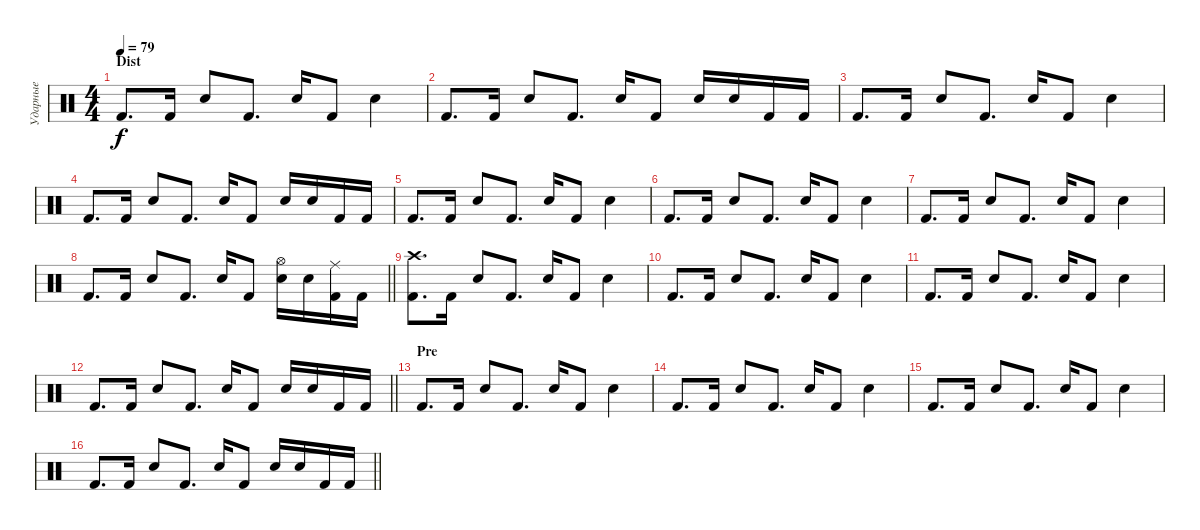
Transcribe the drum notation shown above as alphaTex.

\track ("Ударные" "Ударные") {instrument percussion}
\staff {score}
\articulation defaults
\ts (4 4)
\section ("" "Dist")
\tempo 79
\clef neutral
\ks c "Kick (hit) 2".8{d dy f} "Kick (hit) 2".16 "Snare (hit) 2".8 "Kick (hit) 2".8{d} "Snare (hit) 2".16 "Kick (hit) 2".8 "Snare (hit) 2".4
|
"Kick (hit) 2".8{d} "Kick (hit) 2".16 "Snare (hit) 2".8 "Kick (hit) 2".8{d} "Snare (hit) 2".16 "Kick (hit) 2".8 "Snare (hit) 2".16 "Snare (hit) 2".16 "Kick (hit) 2".16 "Kick (hit) 2".16 |
"Kick (hit) 2".8{d} "Kick (hit) 2".16 "Snare (hit) 2".8 "Kick (hit) 2".8{d} "Snare (hit) 2".16 "Kick (hit) 2".8 "Snare (hit) 2".4 |
"Kick (hit) 2".8{d} "Kick (hit) 2".16 "Snare (hit) 2".8 "Kick (hit) 2".8{d} "Snare (hit) 2".16 "Kick (hit) 2".8 "Snare (hit) 2".16 "Snare (hit) 2".16 "Kick (hit) 2".16 "Kick (hit) 2".16 |
"Kick (hit) 2".8{d} "Kick (hit) 2".16 "Snare (hit) 2".8 "Kick (hit) 2".8{d} "Snare (hit) 2".16 "Kick (hit) 2".8 "Snare (hit) 2".4 |
"Kick (hit) 2".8{d} "Kick (hit) 2".16 "Snare (hit) 2".8 "Kick (hit) 2".8{d} "Snare (hit) 2".16 "Kick (hit) 2".8 "Snare (hit) 2".4 |
"Kick (hit) 2".8{d} "Kick (hit) 2".16 "Snare (hit) 2".8 "Kick (hit) 2".8{d} "Snare (hit) 2".16 "Kick (hit) 2".8 "Snare (hit) 2".4 |
\barLineRight lightlight "Kick (hit) 2".8{d} "Kick (hit) 2".16 "Snare (hit) 2".8 "Kick (hit) 2".8{d} "Snare (hit) 2".16 "Kick (hit) 2".8
("Hi-Hat (open)" "Snare (hit) 2").16 "Snare (hit) 2".16 ("Ride (middle)" "Kick (hit) 2").16 "Kick (hit) 2".16 |
("Crash high (hit)" "Kick (hit) 2").8{d} "Kick (hit) 2".16 "Snare (hit) 2".8 "Kick (hit) 2".8{d} "Snare (hit) 2".16 "Kick (hit) 2".8 "Snare (hit) 2".4 |
"Kick (hit) 2".8{d} "Kick (hit) 2".16 "Snare (hit) 2".8 "Kick (hit) 2".8{d} "Snare (hit) 2".16 "Kick (hit) 2".8 "Snare (hit) 2".4 |
"Kick (hit) 2".8{d} "Kick (hit) 2".16 "Snare (hit) 2".8 "Kick (hit) 2".8{d} "Snare (hit) 2".16 "Kick (hit) 2".8 "Snare (hit) 2".4 |
\barLineRight lightlight "Kick (hit) 2".8{d} "Kick (hit) 2".16 "Snare (hit) 2".8 "Kick (hit) 2".8{d} "Snare (hit) 2".16 "Kick (hit) 2".8 "Snare (hit) 2".16 "Snare (hit) 2".16 "Kick (hit) 2".16 "Kick (hit) 2".16
|
\section ("" "Pre")
"Kick (hit) 2".8{d} "Kick (hit) 2".16 "Snare (hit) 2".8 "Kick (hit) 2".8{d} "Snare (hit) 2".16 "Kick (hit) 2".8 "Snare (hit) 2".4 |
"Kick (hit) 2".8{d} "Kick (hit) 2".16 "Snare (hit) 2".8 "Kick (hit) 2".8{d} "Snare (hit) 2".16 "Kick (hit) 2".8 "Snare (hit) 2".4 |
"Kick (hit) 2".8{d} "Kick (hit) 2".16 "Snare (hit) 2".8 "Kick (hit) 2".8{d} "Snare (hit) 2".16 "Kick (hit) 2".8 "Snare (hit) 2".4 |
\barLineRight lightlight "Kick (hit) 2".8{d} "Kick (hit) 2".16 "Snare (hit) 2".8 "Kick (hit) 2".8{d} "Snare (hit) 2".16 "Kick (hit) 2".8 "Snare (hit) 2".16 "Snare (hit) 2".16 "Kick (hit) 2".16 "Kick (hit) 2".16
